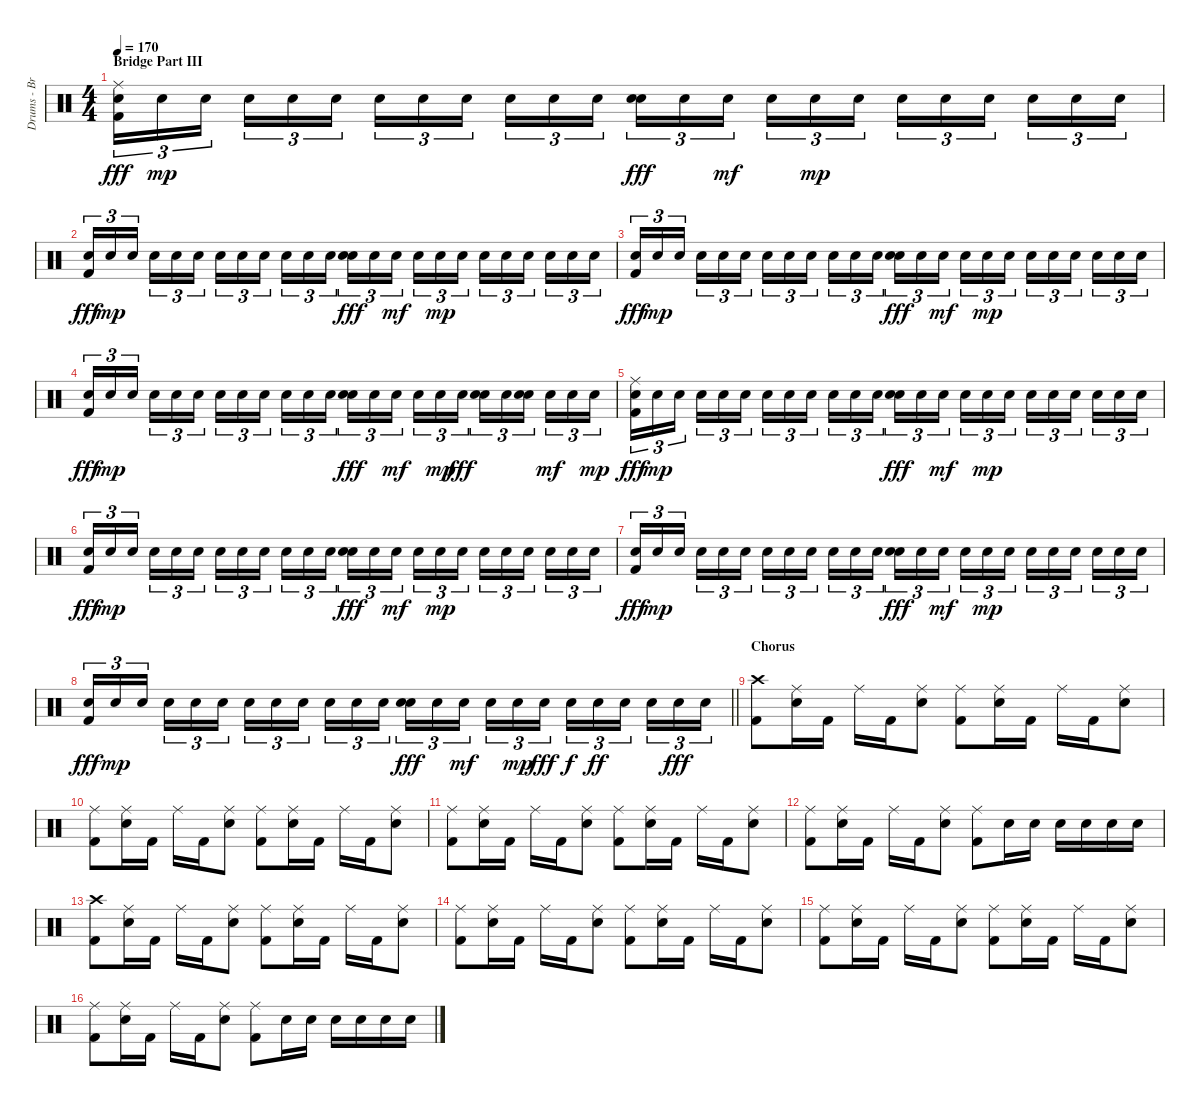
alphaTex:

\track ("Drums - Brandon" "Drums - Br") {instrument percussion}
\staff {score}
\articulation defaults
\ts (4 4)
\section ("" "Bridge Part III")
\tempo 170
\clef neutral
\ks c
("Ride (middle)" "Electric Snare (hit)" "Kick (hit) 2").16{tu (3 2) dy fff} "Electric Snare (hit)".16{tu (3 2) dy mp} "Electric Snare (hit)".16{tu (3 2) beam splitsecondary} "Electric Snare (hit)".16{tu (3 2)} "Electric Snare (hit)".16{tu (3 2)} "Electric Snare (hit)".16{tu (3 2)} "Electric Snare (hit)".16{tu (3 2)} "Electric Snare (hit)".16{tu (3 2)} "Electric Snare (hit)".16{tu (3 2) beam splitsecondary} "Electric Snare (hit)".16{tu (3 2)} "Electric Snare (hit)".16{tu (3 2)} "Electric Snare (hit)".16{tu (3 2)} ("Snare (hit) 2" "Electric Snare (hit)").16{tu (3 2) dy fff} "Electric Snare (hit)".16{tu (3 2)} "Electric Snare (hit)".16{tu (3 2) dy mf beam splitsecondary} "Electric Snare (hit)".16{tu (3 2)} "Electric Snare (hit)".16{tu (3 2) dy mp} "Electric Snare (hit)".16{tu (3 2)} "Electric Snare (hit)".16{tu (3 2)} "Electric Snare (hit)".16{tu (3 2)} "Electric Snare (hit)".16{tu (3 2) beam splitsecondary} "Electric Snare (hit)".16{tu (3 2)} "Electric Snare (hit)".16{tu (3 2)} "Electric Snare (hit)".16{tu (3 2)} |
("Electric Snare (hit)" "Kick (hit) 2").16{tu (3 2) dy fff} "Electric Snare (hit)".16{tu (3 2) dy mp} "Electric Snare (hit)".16{tu (3 2) beam splitsecondary} "Electric Snare (hit)".16{tu (3 2)} "Electric Snare (hit)".16{tu (3 2)} "Electric Snare (hit)".16{tu (3 2)} "Electric Snare (hit)".16{tu (3 2)} "Electric Snare (hit)".16{tu (3 2)} "Electric Snare (hit)".16{tu (3 2) beam splitsecondary} "Electric Snare (hit)".16{tu (3 2)} "Electric Snare (hit)".16{tu (3 2)} "Electric Snare (hit)".16{tu (3 2)} ("Snare (hit) 2" "Electric Snare (hit)").16{tu (3 2) dy fff} "Electric Snare (hit)".16{tu (3 2)} "Electric Snare (hit)".16{tu (3 2) dy mf beam splitsecondary} "Electric Snare (hit)".16{tu (3 2)} "Electric Snare (hit)".16{tu (3 2) dy mp} "Electric Snare (hit)".16{tu (3 2)} "Electric Snare (hit)".16{tu (3 2)} "Electric Snare (hit)".16{tu (3 2)} "Electric Snare (hit)".16{tu (3 2) beam splitsecondary} "Electric Snare (hit)".16{tu (3 2)} "Electric Snare (hit)".16{tu (3 2)} "Electric Snare (hit)".16{tu (3 2)} |
("Electric Snare (hit)" "Kick (hit) 2").16{tu (3 2) dy fff} "Electric Snare (hit)".16{tu (3 2) dy mp} "Electric Snare (hit)".16{tu (3 2) beam splitsecondary} "Electric Snare (hit)".16{tu (3 2)} "Electric Snare (hit)".16{tu (3 2)} "Electric Snare (hit)".16{tu (3 2)} "Electric Snare (hit)".16{tu (3 2)} "Electric Snare (hit)".16{tu (3 2)} "Electric Snare (hit)".16{tu (3 2) beam splitsecondary} "Electric Snare (hit)".16{tu (3 2)} "Electric Snare (hit)".16{tu (3 2)} "Electric Snare (hit)".16{tu (3 2)} ("Snare (hit) 2" "Electric Snare (hit)").16{tu (3 2) dy fff} "Electric Snare (hit)".16{tu (3 2)} "Electric Snare (hit)".16{tu (3 2) dy mf beam splitsecondary} "Electric Snare (hit)".16{tu (3 2)} "Electric Snare (hit)".16{tu (3 2) dy mp} "Electric Snare (hit)".16{tu (3 2)} "Electric Snare (hit)".16{tu (3 2)} "Electric Snare (hit)".16{tu (3 2)} "Electric Snare (hit)".16{tu (3 2) beam splitsecondary} "Electric Snare (hit)".16{tu (3 2)} "Electric Snare (hit)".16{tu (3 2)} "Electric Snare (hit)".16{tu (3 2)} |
("Electric Snare (hit)" "Kick (hit) 2").16{tu (3 2) dy fff} "Electric Snare (hit)".16{tu (3 2) dy mp} "Electric Snare (hit)".16{tu (3 2) beam splitsecondary} "Electric Snare (hit)".16{tu (3 2)} "Electric Snare (hit)".16{tu (3 2)} "Electric Snare (hit)".16{tu (3 2)} "Electric Snare (hit)".16{tu (3 2)} "Electric Snare (hit)".16{tu (3 2)} "Electric Snare (hit)".16{tu (3 2) beam splitsecondary} "Electric Snare (hit)".16{tu (3 2)} "Electric Snare (hit)".16{tu (3 2)} "Electric Snare (hit)".16{tu (3 2)} ("Snare (hit) 2" "Electric Snare (hit)").16{tu (3 2) dy fff} "Electric Snare (hit)".16{tu (3 2)} "Electric Snare (hit)".16{tu (3 2) dy mf beam splitsecondary} "Electric Snare (hit)".16{tu (3 2)} "Electric Snare (hit)".16{tu (3 2) dy mp} "Electric Snare (hit)".16{tu (3 2) dy fff} ("Snare (hit) 2" "Electric Snare (hit)").16{tu (3 2)} "Electric Snare (hit)".16{tu (3 2)} ("Snare (hit) 2" "Electric Snare (hit)").16{tu (3 2) beam splitsecondary} "Electric Snare (hit)".16{tu (3 2) dy mf} "Electric Snare (hit)".16{tu (3 2)} "Electric Snare (hit)".16{tu (3 2) dy mp} |
("Ride (middle)" "Electric Snare (hit)" "Kick (hit) 2").16{tu (3 2) dy fff} "Electric Snare (hit)".16{tu (3 2) dy mp} "Electric Snare (hit)".16{tu (3 2) beam splitsecondary} "Electric Snare (hit)".16{tu (3 2)} "Electric Snare (hit)".16{tu (3 2)} "Electric Snare (hit)".16{tu (3 2)} "Electric Snare (hit)".16{tu (3 2)} "Electric Snare (hit)".16{tu (3 2)} "Electric Snare (hit)".16{tu (3 2) beam splitsecondary} "Electric Snare (hit)".16{tu (3 2)} "Electric Snare (hit)".16{tu (3 2)} "Electric Snare (hit)".16{tu (3 2)} ("Snare (hit) 2" "Electric Snare (hit)").16{tu (3 2) dy fff} "Electric Snare (hit)".16{tu (3 2)} "Electric Snare (hit)".16{tu (3 2) dy mf beam splitsecondary} "Electric Snare (hit)".16{tu (3 2)} "Electric Snare (hit)".16{tu (3 2) dy mp} "Electric Snare (hit)".16{tu (3 2)} "Electric Snare (hit)".16{tu (3 2)} "Electric Snare (hit)".16{tu (3 2)} "Electric Snare (hit)".16{tu (3 2) beam splitsecondary} "Electric Snare (hit)".16{tu (3 2)} "Electric Snare (hit)".16{tu (3 2)} "Electric Snare (hit)".16{tu (3 2)} |
("Electric Snare (hit)" "Kick (hit) 2").16{tu (3 2) dy fff} "Electric Snare (hit)".16{tu (3 2) dy mp} "Electric Snare (hit)".16{tu (3 2) beam splitsecondary} "Electric Snare (hit)".16{tu (3 2)} "Electric Snare (hit)".16{tu (3 2)} "Electric Snare (hit)".16{tu (3 2)} "Electric Snare (hit)".16{tu (3 2)} "Electric Snare (hit)".16{tu (3 2)} "Electric Snare (hit)".16{tu (3 2) beam splitsecondary} "Electric Snare (hit)".16{tu (3 2)} "Electric Snare (hit)".16{tu (3 2)} "Electric Snare (hit)".16{tu (3 2)} ("Snare (hit) 2" "Electric Snare (hit)").16{tu (3 2) dy fff} "Electric Snare (hit)".16{tu (3 2)} "Electric Snare (hit)".16{tu (3 2) dy mf beam splitsecondary} "Electric Snare (hit)".16{tu (3 2)} "Electric Snare (hit)".16{tu (3 2) dy mp} "Electric Snare (hit)".16{tu (3 2)} "Electric Snare (hit)".16{tu (3 2)} "Electric Snare (hit)".16{tu (3 2)} "Electric Snare (hit)".16{tu (3 2) beam splitsecondary} "Electric Snare (hit)".16{tu (3 2)} "Electric Snare (hit)".16{tu (3 2)} "Electric Snare (hit)".16{tu (3 2)} |
("Electric Snare (hit)" "Kick (hit) 2").16{tu (3 2) dy fff} "Electric Snare (hit)".16{tu (3 2) dy mp} "Electric Snare (hit)".16{tu (3 2) beam splitsecondary} "Electric Snare (hit)".16{tu (3 2)} "Electric Snare (hit)".16{tu (3 2)} "Electric Snare (hit)".16{tu (3 2)} "Electric Snare (hit)".16{tu (3 2)} "Electric Snare (hit)".16{tu (3 2)} "Electric Snare (hit)".16{tu (3 2) beam splitsecondary} "Electric Snare (hit)".16{tu (3 2)} "Electric Snare (hit)".16{tu (3 2)} "Electric Snare (hit)".16{tu (3 2)} ("Snare (hit) 2" "Electric Snare (hit)").16{tu (3 2) dy fff} "Electric Snare (hit)".16{tu (3 2)} "Electric Snare (hit)".16{tu (3 2) dy mf beam splitsecondary} "Electric Snare (hit)".16{tu (3 2)} "Electric Snare (hit)".16{tu (3 2) dy mp} "Electric Snare (hit)".16{tu (3 2)} "Electric Snare (hit)".16{tu (3 2)} "Electric Snare (hit)".16{tu (3 2)} "Electric Snare (hit)".16{tu (3 2) beam splitsecondary} "Electric Snare (hit)".16{tu (3 2)} "Electric Snare (hit)".16{tu (3 2)} "Electric Snare (hit)".16{tu (3 2)} |
\barLineRight lightlight
("Electric Snare (hit)" "Kick (hit) 2").16{tu (3 2) dy fff} "Electric Snare (hit)".16{tu (3 2) dy mp} "Electric Snare (hit)".16{tu (3 2) beam splitsecondary} "Electric Snare (hit)".16{tu (3 2)} "Electric Snare (hit)".16{tu (3 2)} "Electric Snare (hit)".16{tu (3 2)} "Electric Snare (hit)".16{tu (3 2)} "Electric Snare (hit)".16{tu (3 2)} "Electric Snare (hit)".16{tu (3 2) beam splitsecondary} "Electric Snare (hit)".16{tu (3 2)} "Electric Snare (hit)".16{tu (3 2)} "Electric Snare (hit)".16{tu (3 2)} ("Snare (hit) 2" "Electric Snare (hit)").16{tu (3 2) dy fff} "Electric Snare (hit)".16{tu (3 2)} "Electric Snare (hit)".16{tu (3 2) dy mf beam splitsecondary} "Electric Snare (hit)".16{tu (3 2)} "Electric Snare (hit)".16{tu (3 2) dy mp} "Electric Snare (hit)".16{tu (3 2) dy fff} "Electric Snare (hit)".16{tu (3 2) dy f} "Electric Snare (hit)".16{tu (3 2) dy ff} "Electric Snare (hit)".16{tu (3 2) beam splitsecondary} "Electric Snare (hit)".16{tu (3 2)} "Electric Snare (hit)".16{tu (3 2) dy fff} "Electric Snare (hit)".16{tu (3 2)} |
\section ("" "Chorus")
("Crash high (hit)" "Kick (hit) 2").8 ("Ride (middle)" "Electric Snare (hit)").16 "Kick (hit) 2".16 "Ride (middle)".16 "Kick (hit) 2".16 ("Ride (middle)" "Electric Snare (hit)").8 ("Ride (middle)" "Kick (hit) 2").8 ("Ride (middle)" "Electric Snare (hit)").16 "Kick (hit) 2".16 "Ride (middle)".16 "Kick (hit) 2".16 ("Ride (middle)" "Electric Snare (hit)").8 |
("Ride (middle)" "Kick (hit) 2").8 ("Ride (middle)" "Electric Snare (hit)").16 "Kick (hit) 2".16 "Ride (middle)".16 "Kick (hit) 2".16 ("Ride (middle)" "Electric Snare (hit)").8 ("Ride (middle)" "Kick (hit) 2").8 ("Ride (middle)" "Electric Snare (hit)").16 "Kick (hit) 2".16 "Ride (middle)".16 "Kick (hit) 2".16 ("Ride (middle)" "Electric Snare (hit)").8 |
("Ride (middle)" "Kick (hit) 2").8 ("Ride (middle)" "Electric Snare (hit)").16 "Kick (hit) 2".16 "Ride (middle)".16 "Kick (hit) 2".16 ("Ride (middle)" "Electric Snare (hit)").8 ("Ride (middle)" "Kick (hit) 2").8 ("Ride (middle)" "Electric Snare (hit)").16 "Kick (hit) 2".16 "Ride (middle)".16 "Kick (hit) 2".16 ("Ride (middle)" "Electric Snare (hit)").8 |
("Ride (middle)" "Kick (hit) 2").8 ("Ride (middle)" "Electric Snare (hit)").16 "Kick (hit) 2".16 "Ride (middle)".16 "Kick (hit) 2".16 ("Ride (middle)" "Electric Snare (hit)").8 ("Ride (middle)" "Kick (hit) 2").8 "Electric Snare (hit)".16 "Electric Snare (hit)".16 "Electric Snare (hit)".16 "Electric Snare (hit)".16 "Electric Snare (hit)".16 "Electric Snare (hit)".16 |
("Crash high (hit)" "Kick (hit) 2").8 ("Ride (middle)" "Electric Snare (hit)").16 "Kick (hit) 2".16 "Ride (middle)".16 "Kick (hit) 2".16 ("Ride (middle)" "Electric Snare (hit)").8 ("Ride (middle)" "Kick (hit) 2").8 ("Ride (middle)" "Electric Snare (hit)").16 "Kick (hit) 2".16 "Ride (middle)".16 "Kick (hit) 2".16 ("Ride (middle)" "Electric Snare (hit)").8 |
("Ride (middle)" "Kick (hit) 2").8 ("Ride (middle)" "Electric Snare (hit)").16 "Kick (hit) 2".16 "Ride (middle)".16 "Kick (hit) 2".16 ("Ride (middle)" "Electric Snare (hit)").8 ("Ride (middle)" "Kick (hit) 2").8 ("Ride (middle)" "Electric Snare (hit)").16 "Kick (hit) 2".16 "Ride (middle)".16 "Kick (hit) 2".16 ("Ride (middle)" "Electric Snare (hit)").8 |
("Ride (middle)" "Kick (hit) 2").8 ("Ride (middle)" "Electric Snare (hit)").16 "Kick (hit) 2".16 "Ride (middle)".16 "Kick (hit) 2".16 ("Ride (middle)" "Electric Snare (hit)").8 ("Ride (middle)" "Kick (hit) 2").8 ("Ride (middle)" "Electric Snare (hit)").16 "Kick (hit) 2".16 "Ride (middle)".16 "Kick (hit) 2".16 ("Ride (middle)" "Electric Snare (hit)").8 |
("Ride (middle)" "Kick (hit) 2").8 ("Ride (middle)" "Electric Snare (hit)").16 "Kick (hit) 2".16 "Ride (middle)".16 "Kick (hit) 2".16 ("Ride (middle)" "Electric Snare (hit)").8 ("Ride (middle)" "Kick (hit) 2").8 "Electric Snare (hit)".16 "Electric Snare (hit)".16 "Electric Snare (hit)".16 "Electric Snare (hit)".16 "Electric Snare (hit)".16 "Electric Snare (hit)".16
